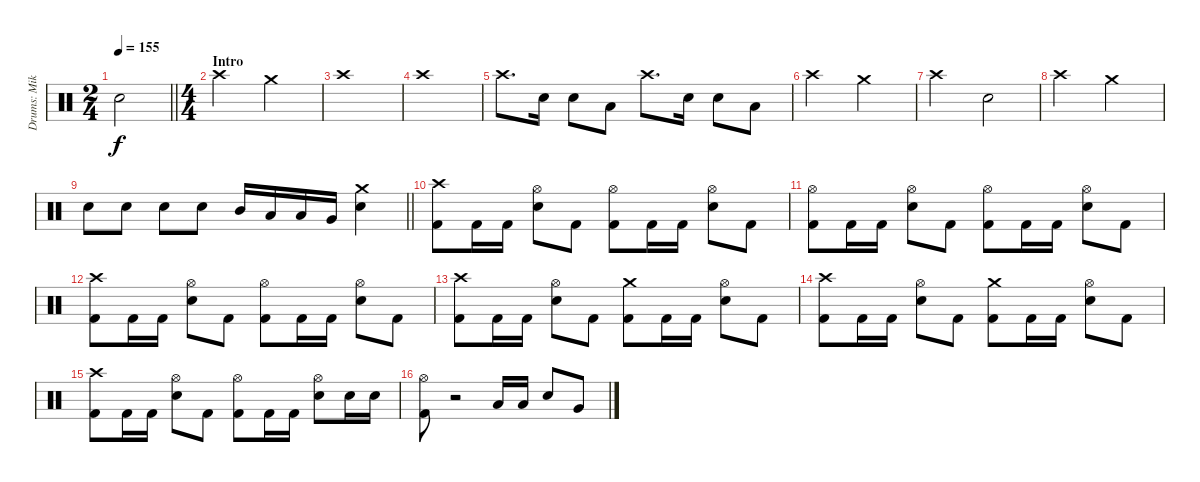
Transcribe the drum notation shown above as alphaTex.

\track ("Drums: Mikko Korsbäck" "Drums: Mik") {instrument percussion}
\staff {score}
\articulation defaults
\ts (2 4)
\tempo 155
\clef neutral
\barLineRight lightlight
\ks aminor "Electric Snare (hit)".2{dy f}
|
\ts (4 4)
\section ("" "Intro")
"Crash high (hit)".2 "Crash medium (hit)".2 |
"Crash high (hit)".1 |
"Crash high (hit)".1 |
"Crash high (hit)".8{d} "Electric Snare (hit)".16 "Electric Snare (hit)".8 "Low Tom (hit)".8 "Crash high (hit)".8{d} "Electric Snare (hit)".16 "Electric Snare (hit)".8 "Low Tom (hit)".8 |
"Crash high (hit)".2 "Crash medium (hit)".2 |
"Crash high (hit)".2 "Electric Snare (hit)".2 |
"Crash high (hit)".2 "Crash medium (hit)".2 |
\barLineRight lightlight "Electric Snare (hit)".8 "Electric Snare (hit)".8 "Electric Snare (hit)".8 "Electric Snare (hit)".8 "Mid Tom (hit)".16 "Low Tom (hit)".16 "Low Tom (hit)".16 "Very Low Tom (hit)".16
("Crash medium (hit)" "Electric Snare (hit)").4 |
("Crash high (hit)" "Kick (hit) 2").8 "Kick (hit) 2".16 "Kick (hit) 2".16 ("Hi-Hat (open)" "Electric Snare (hit)").8 "Kick (hit) 2".8 ("Hi-Hat (open)" "Kick (hit) 2").8 "Kick (hit) 2".16 "Kick (hit) 2".16 ("Hi-Hat (open)" "Electric Snare (hit)").8 "Kick (hit) 2".8 |
("Hi-Hat (open)" "Kick (hit) 2").8 "Kick (hit) 2".16 "Kick (hit) 2".16 ("Hi-Hat (open)" "Electric Snare (hit)").8 "Kick (hit) 2".8 ("Hi-Hat (open)" "Kick (hit) 2").8 "Kick (hit) 2".16 "Kick (hit) 2".16 ("Hi-Hat (open)" "Electric Snare (hit)").8 "Kick (hit) 2".8 |
("Crash high (hit)" "Kick (hit) 2").8 "Kick (hit) 2".16 "Kick (hit) 2".16 ("Hi-Hat (open)" "Electric Snare (hit)").8 "Kick (hit) 2".8 ("Hi-Hat (open)" "Kick (hit) 2").8 "Kick (hit) 2".16 "Kick (hit) 2".16 ("Hi-Hat (open)" "Electric Snare (hit)").8 "Kick (hit) 2".8 |
("Crash high (hit)" "Kick (hit) 2").8 "Kick (hit) 2".16 "Kick (hit) 2".16 ("Hi-Hat (open)" "Electric Snare (hit)").8 "Kick (hit) 2".8 ("Crash medium (hit)" "Kick (hit) 2").8 "Kick (hit) 2".16 "Kick (hit) 2".16 ("Hi-Hat (open)" "Electric Snare (hit)").8 "Kick (hit) 2".8 |
("Crash high (hit)" "Kick (hit) 2").8 "Kick (hit) 2".16 "Kick (hit) 2".16 ("Hi-Hat (open)" "Electric Snare (hit)").8 "Kick (hit) 2".8 ("Crash medium (hit)" "Kick (hit) 2").8 "Kick (hit) 2".16 "Kick (hit) 2".16 ("Hi-Hat (open)" "Electric Snare (hit)").8 "Kick (hit) 2".8 |
("Crash high (hit)" "Kick (hit) 2").8 "Kick (hit) 2".16 "Kick (hit) 2".16 ("Hi-Hat (open)" "Electric Snare (hit)").8 "Kick (hit) 2".8 ("Hi-Hat (open)" "Kick (hit) 2").8 "Kick (hit) 2".16 "Kick (hit) 2".16 ("Hi-Hat (open)" "Electric Snare (hit)").8 "Electric Snare (hit)".16 "Electric Snare (hit)".16 |
("Hi-Hat (open)" "Kick (hit) 2").8 r.2 "Low Tom (hit)".16 "Low Tom (hit)".16 "Electric Snare (hit)".8 "Very Low Tom (hit)".8
